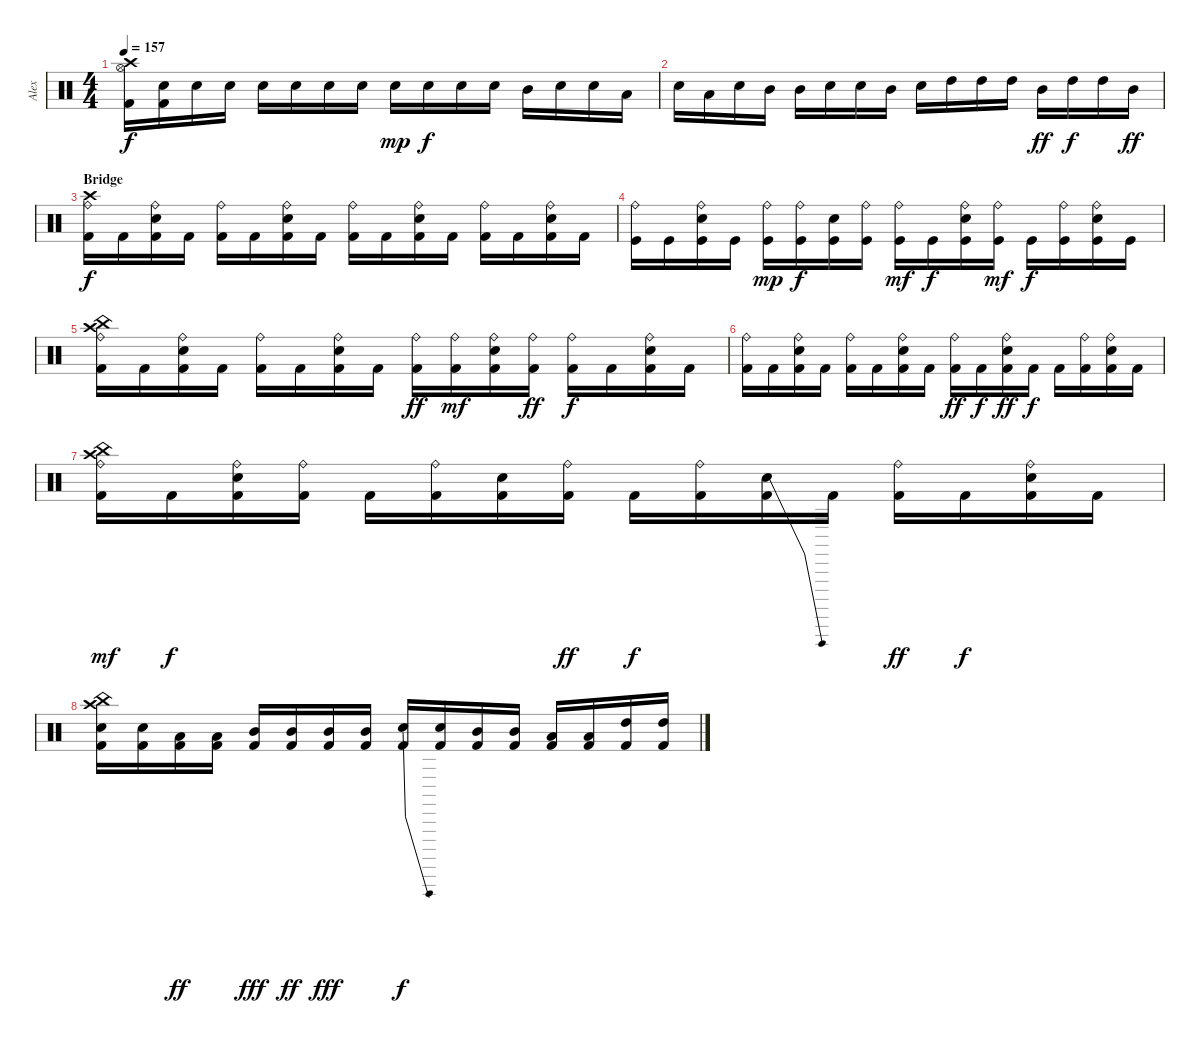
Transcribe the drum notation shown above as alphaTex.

\track ("Alex" "Alex") {instrument percussion}
\staff {score}
\articulation defaults
\ts (4 4)
\tempo 157
\clef neutral
\ks c
("Crash high (hit)" "Hi-Hat (open)" "Kick (hit) 2").16{dy f} ("Electric Snare (hit)" "Kick (hit) 2").16 "Electric Snare (hit)".16 "Electric Snare (hit)".16 "Electric Snare (hit)".16 "Electric Snare (hit)".16 "Electric Snare (hit)".16 "Electric Snare (hit)".16 "Electric Snare (hit)".16{dy mp} "Electric Snare (hit)".16{dy f} "Electric Snare (hit)".16 "Electric Snare (hit)".16 "Mid Tom (hit)".16 "Electric Snare (hit)".16 "Electric Snare (hit)".16 "Low Tom (hit)".16 |
"Electric Snare (hit)".16 "Low Tom (hit)".16 "Electric Snare (hit)".16 "Mid Tom (hit)".16 "Mid Tom (hit)".16 "Electric Snare (hit)".16 "Electric Snare (hit)".16 "Mid Tom (hit)".16 "Electric Snare (hit)".16 "High Tom (hit)".16 "High Tom (hit)".16 "High Tom (hit)".16 "Mid Tom (hit)".16{dy ff} "High Tom (hit)".16{dy f} "High Tom (hit)".16 "Mid Tom (hit)".16{dy ff} |
\section ("" "Bridge")
("Crash high (hit)" "Ride (bell)" "Kick (hit) 2").16{dy f} "Kick (hit) 2".16 ("Ride (bell)" "Electric Snare (hit)" "Kick (hit) 2").16 "Kick (hit) 2".16 ("Ride (bell)" "Kick (hit) 2").16 "Kick (hit) 2".16 ("Ride (bell)" "Electric Snare (hit)" "Kick (hit) 2").16 "Kick (hit) 2".16 ("Ride (bell)" "Kick (hit) 2").16 "Kick (hit) 2".16 ("Ride (bell)" "Electric Snare (hit)" "Kick (hit) 2").16 "Kick (hit) 2".16 ("Ride (bell)" "Kick (hit) 2").16 "Kick (hit) 2".16 ("Ride (bell)" "Electric Snare (hit)" "Kick (hit) 2").16 "Kick (hit) 2".16 |
("Ride (bell)" "Kick (hit)").16 "Kick (hit)".16 ("Ride (bell)" "Electric Snare (hit)" "Kick (hit)").16 "Kick (hit)".16 ("Ride (bell)" "Kick (hit)").16{dy mp} ("Ride (bell)" "Kick (hit)").16{dy f} ("Electric Snare (hit)" "Kick (hit)").16 ("Ride (bell)" "Kick (hit)").16 ("Ride (bell)" "Kick (hit)").16{dy mf} "Kick (hit)".16{dy f} ("Ride (bell)" "Electric Snare (hit)" "Kick (hit)").16 ("Ride (bell)" "Kick (hit)").16{dy mf} "Kick (hit)".16{dy f} ("Ride (bell)" "Kick (hit)").16 ("Ride (bell)" "Electric Snare (hit)" "Kick (hit)").16 "Kick (hit)".16 |
("Crash high (hit)" "China (hit)" "Ride (bell)" "Kick (hit) 2").16 "Kick (hit) 2".16 ("Ride (bell)" "Electric Snare (hit)" "Kick (hit) 2").16 "Kick (hit) 2".16 ("Ride (bell)" "Kick (hit) 2").16 "Kick (hit) 2".16 ("Ride (bell)" "Electric Snare (hit)" "Kick (hit) 2").16 "Kick (hit) 2".16 ("Ride (bell)" "Kick (hit) 2").16{dy ff} ("Ride (bell)" "Kick (hit) 2").16{dy mf} ("Ride (bell)" "Electric Snare (hit)" "Kick (hit) 2").16 ("Ride (bell)" "Kick (hit) 2").16{dy ff} ("Ride (bell)" "Kick (hit) 2").16{dy f} "Kick (hit) 2".16 ("Ride (bell)" "Electric Snare (hit)" "Kick (hit) 2").16 "Kick (hit) 2".16 |
("Ride (bell)" "Kick (hit) 2").16 "Kick (hit) 2".16 ("Ride (bell)" "Electric Snare (hit)" "Kick (hit) 2").16 "Kick (hit) 2".16 ("Ride (bell)" "Kick (hit) 2").16 "Kick (hit) 2".16 ("Ride (bell)" "Electric Snare (hit)" "Kick (hit) 2").16 "Kick (hit) 2".16 ("Ride (bell)" "Kick (hit) 2").16{dy ff} "Kick (hit) 2".16{dy f} ("Ride (bell)" "Electric Snare (hit)" "Kick (hit) 2").16{dy ff} "Kick (hit) 2".16{dy f} "Kick (hit) 2".16 ("Ride (bell)" "Kick (hit) 2").16 ("Ride (bell)" "Electric Snare (hit)" "Kick (hit) 2").16 "Kick (hit) 2".16 |
("Crash high (hit)" "China (hit)" "Ride (bell)" "Kick (hit) 2").16{dy mf} "Kick (hit) 2".16{dy f} ("Ride (bell)" "Electric Snare (hit)" "Kick (hit) 2").16 ("Ride (bell)" "Kick (hit) 2").16 "Kick (hit) 2".16 ("Ride (bell)" "Kick (hit) 2").16 ("Electric Snare (hit)" "Kick (hit) 2").16 ("Ride (bell)" "Kick (hit) 2").16{dy ff} "Kick (hit) 2".16{dy f} ("Ride (bell)" "Kick (hit) 2").16 ("Electric Snare (hit)"{be (bend 0 0 60 12)} "Kick (hit) 2").16 "Kick (hit) 2".16 ("Ride (bell)" "Kick (hit) 2").16{dy ff} "Kick (hit) 2".16{dy f} ("Ride (bell)" "Electric Snare (hit)" "Kick (hit) 2").16 "Kick (hit) 2".16 |
("China (hit)" "Crash high (hit)" "Electric Snare (hit)" "Kick (hit) 2").16 ("Electric Snare (hit)" "Kick (hit) 2").16 ("Low Tom (hit)" "Kick (hit) 2").16{dy ff} ("Low Tom (hit)" "Kick (hit) 2").16 ("Mid Tom (hit)" "Kick (hit) 2").16{dy fff} ("Mid Tom (hit)" "Kick (hit) 2").16{dy ff} ("Mid Tom (hit)" "Kick (hit) 2").16{dy fff} ("Mid Tom (hit)" "Kick (hit) 2").16 ("Electric Snare (hit)"{be (bend 0 0 60 12)} "Kick (hit) 2").16{dy f} ("Electric Snare (hit)" "Kick (hit) 2").16 ("Mid Tom (hit)" "Kick (hit) 2").16 ("Mid Tom (hit)" "Kick (hit) 2").16 ("Low Tom (hit)" "Kick (hit) 2").16 ("Low Tom (hit)" "Kick (hit) 2").16 ("High Tom (hit)" "Kick (hit) 2").16 ("High Tom (hit)" "Kick (hit) 2").16
